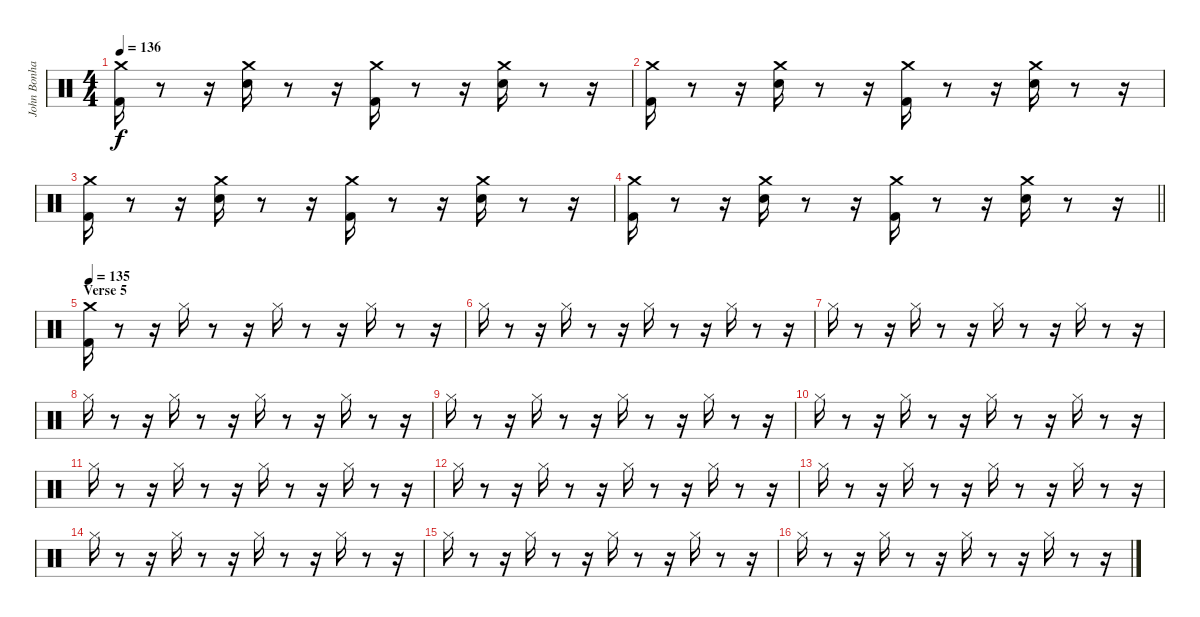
\track ("John Bonham" "John Bonha") {instrument percussion}
\staff {score}
\articulation defaults
\ts (4 4)
\tempo 136
\clef neutral
\ks aminor
("Kick (hit) 2" "Crash medium (hit)").16{dy f} r.8 r.16 ("Electric Snare (hit)" "Crash medium (hit)").16 r.8 r.16 ("Kick (hit) 2" "Crash medium (hit)").16 r.8 r.16 ("Electric Snare (hit)" "Crash medium (hit)").16 r.8 r.16 |
("Kick (hit) 2" "Crash medium (hit)").16 r.8 r.16 ("Electric Snare (hit)" "Crash medium (hit)").16 r.8 r.16 ("Kick (hit) 2" "Crash medium (hit)").16 r.8 r.16 ("Electric Snare (hit)" "Crash medium (hit)").16 r.8 r.16 |
("Kick (hit) 2" "Crash medium (hit)").16 r.8 r.16 ("Electric Snare (hit)" "Crash medium (hit)").16 r.8 r.16 ("Kick (hit) 2" "Crash medium (hit)").16 r.8 r.16 ("Electric Snare (hit)" "Crash medium (hit)").16 r.8 r.16 |
\barLineRight lightlight
("Kick (hit) 2" "Crash medium (hit)").16 r.8 r.16 ("Electric Snare (hit)" "Crash medium (hit)").16 r.8 r.16 ("Kick (hit) 2" "Crash medium (hit)").16 r.8 r.16 ("Electric Snare (hit)" "Crash medium (hit)").16 r.8 r.16 |
\section ("" "Verse 5")
\tempo 135
("Kick (hit) 2" "Crash medium (hit)").16 r.8 r.16 "Hi-Hat (closed)".16 r.8 r.16 "Hi-Hat (closed)".16 r.8 r.16 "Hi-Hat (closed)".16 r.8 r.16 |
"Hi-Hat (closed)".16 r.8 r.16 "Hi-Hat (closed)".16 r.8 r.16 "Hi-Hat (closed)".16 r.8 r.16 "Hi-Hat (closed)".16 r.8 r.16 |
"Hi-Hat (closed)".16 r.8 r.16 "Hi-Hat (closed)".16 r.8 r.16 "Hi-Hat (closed)".16 r.8 r.16 "Hi-Hat (closed)".16 r.8 r.16 |
"Hi-Hat (closed)".16 r.8 r.16 "Hi-Hat (closed)".16 r.8 r.16 "Hi-Hat (closed)".16 r.8 r.16 "Hi-Hat (closed)".16 r.8 r.16 |
"Hi-Hat (closed)".16 r.8 r.16 "Hi-Hat (closed)".16 r.8 r.16 "Hi-Hat (closed)".16 r.8 r.16 "Hi-Hat (closed)".16 r.8 r.16 |
"Hi-Hat (closed)".16 r.8 r.16 "Hi-Hat (closed)".16 r.8 r.16 "Hi-Hat (closed)".16 r.8 r.16 "Hi-Hat (closed)".16 r.8 r.16 |
"Hi-Hat (closed)".16 r.8 r.16 "Hi-Hat (closed)".16 r.8 r.16 "Hi-Hat (closed)".16 r.8 r.16 "Hi-Hat (closed)".16 r.8 r.16 |
"Hi-Hat (closed)".16 r.8 r.16 "Hi-Hat (closed)".16 r.8 r.16 "Hi-Hat (closed)".16 r.8 r.16 "Hi-Hat (closed)".16 r.8 r.16 |
"Hi-Hat (closed)".16 r.8 r.16 "Hi-Hat (closed)".16 r.8 r.16 "Hi-Hat (closed)".16 r.8 r.16 "Hi-Hat (closed)".16 r.8 r.16 |
\ks c "Hi-Hat (closed)".16
r.8 r.16 "Hi-Hat (closed)".16 r.8 r.16 "Hi-Hat (closed)".16 r.8 r.16 "Hi-Hat (closed)".16 r.8 r.16 |
"Hi-Hat (closed)".16 r.8 r.16 "Hi-Hat (closed)".16 r.8 r.16 "Hi-Hat (closed)".16 r.8 r.16 "Hi-Hat (closed)".16 r.8 r.16 |
\ks aminor "Hi-Hat (closed)".16
r.8 r.16 "Hi-Hat (closed)".16 r.8 r.16 "Hi-Hat (closed)".16 r.8 r.16 "Hi-Hat (closed)".16 r.8 r.16
